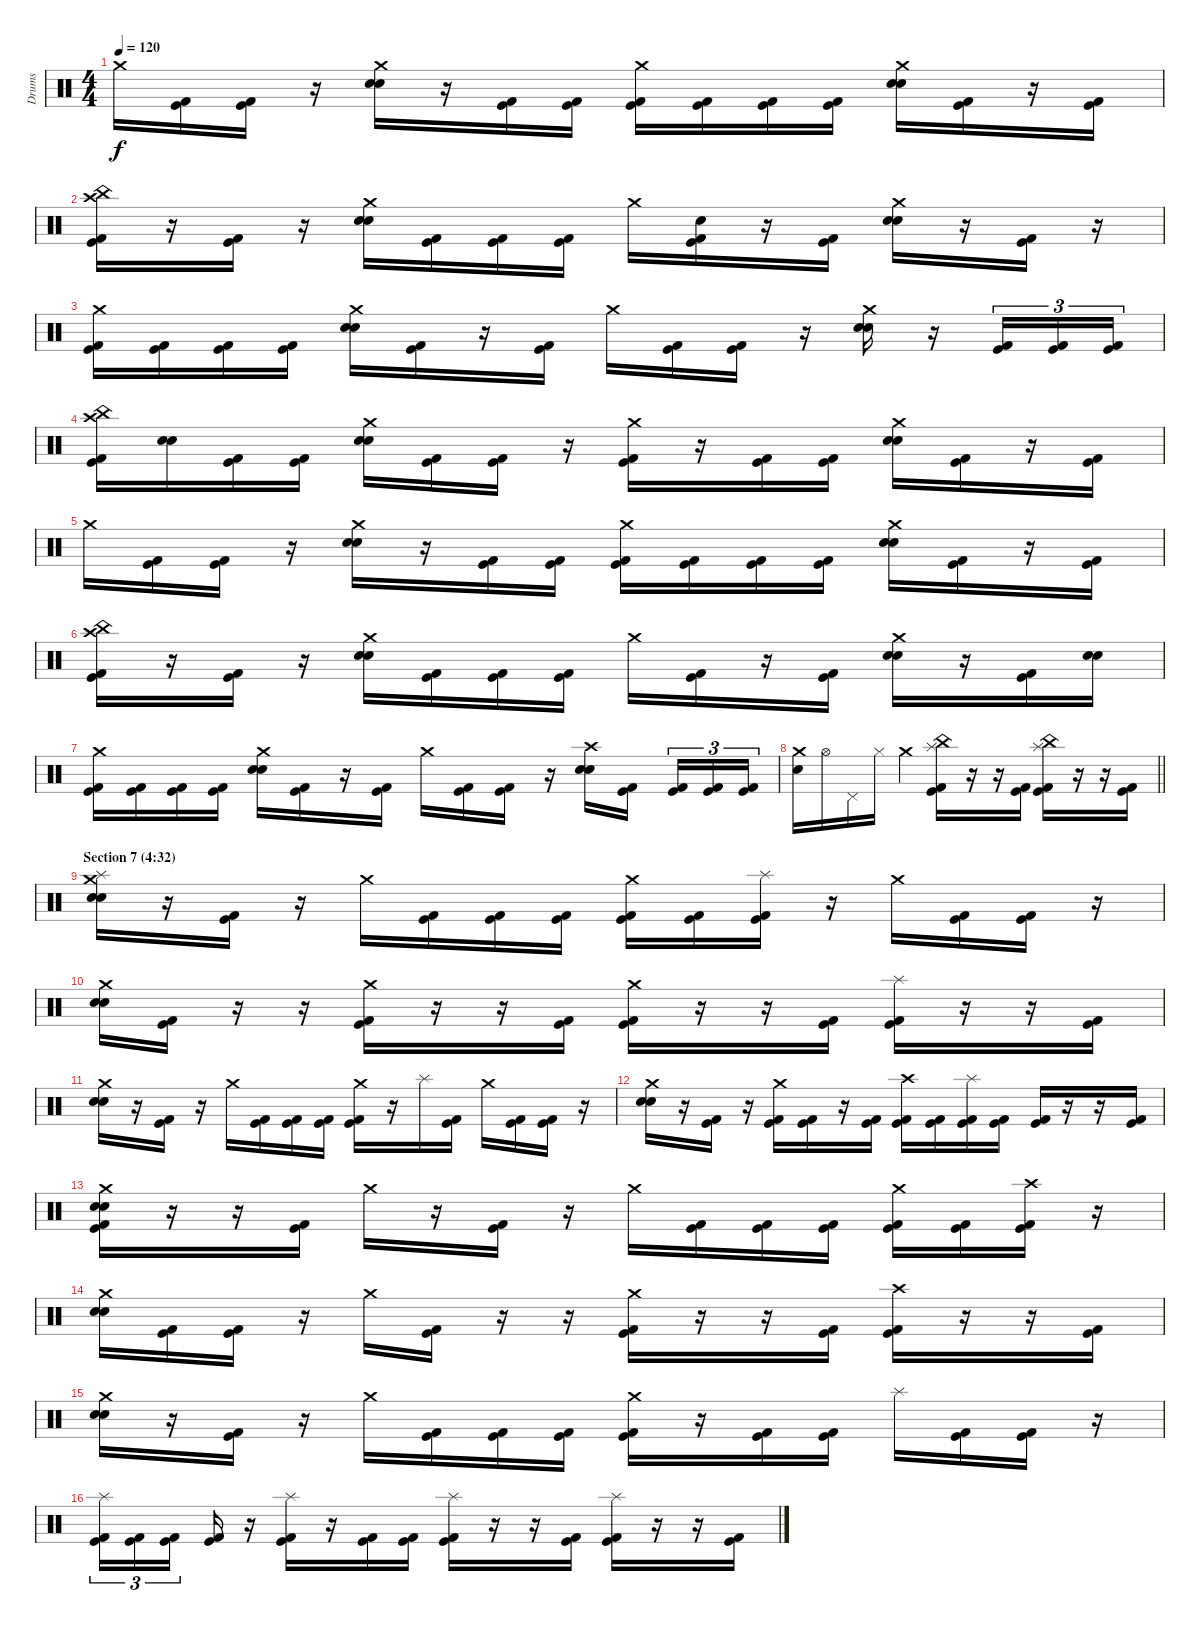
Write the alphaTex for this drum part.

\track ("Drums" "Drums") {instrument percussion}
\staff {score}
\articulation defaults
\ts (4 4)
\tempo 120
\clef neutral
\ks c "Crash medium (hit)".16{dy f}
("Kick (hit) 2" "Kick (hit)").16 ("Kick (hit) 2" "Kick (hit)").16 r.16 ("Crash medium (hit)" "Electric Snare (hit)" "Electric Snare (hit)").16 r.16 ("Kick (hit) 2" "Kick (hit)").16 ("Kick (hit) 2" "Kick (hit)").16 ("Crash medium (hit)" "Kick (hit) 2" "Kick (hit)").16 ("Kick (hit) 2" "Kick (hit)").16 ("Kick (hit) 2" "Kick (hit)").16 ("Kick (hit) 2" "Kick (hit)").16 ("Crash medium (hit)" "Electric Snare (hit)" "Electric Snare (hit)").16 ("Kick (hit) 2" "Kick (hit)").16 r.16 ("Kick (hit) 2" "Kick (hit)").16 |
("Crash high (hit)" "China (hit)" "Kick (hit) 2" "Kick (hit)").16 r.16 ("Kick (hit) 2" "Kick (hit)").16 r.16 ("Crash medium (hit)" "Electric Snare (hit)" "Electric Snare (hit)").16 ("Kick (hit) 2" "Kick (hit)").16 ("Kick (hit) 2" "Kick (hit)").16 ("Kick (hit) 2" "Kick (hit)").16 "Crash medium (hit)".16 ("Electric Snare (hit)" "Kick (hit) 2" "Kick (hit)").16 r.16 ("Kick (hit) 2" "Kick (hit)").16 ("Crash medium (hit)" "Electric Snare (hit)" "Electric Snare (hit)").16 r.16 ("Kick (hit) 2" "Kick (hit)").16 r.16 |
("Crash medium (hit)" "Kick (hit) 2" "Kick (hit)").16 ("Kick (hit) 2" "Kick (hit)").16 ("Kick (hit) 2" "Kick (hit)").16 ("Kick (hit) 2" "Kick (hit)").16 ("Crash medium (hit)" "Electric Snare (hit)" "Electric Snare (hit)").16 ("Kick (hit) 2" "Kick (hit)").16 r.16 ("Kick (hit) 2" "Kick (hit)").16 "Crash medium (hit)".16 ("Kick (hit) 2" "Kick (hit)").16 ("Kick (hit) 2" "Kick (hit)").16 r.16 ("Crash medium (hit)" "Electric Snare (hit)" "Electric Snare (hit)").16 r.16 ("Kick (hit) 2" "Kick (hit)").16{tu (3 2)} ("Kick (hit) 2" "Kick (hit)").16{tu (3 2)} ("Kick (hit) 2" "Kick (hit)").16{tu (3 2)} |
("Crash high (hit)" "China (hit)" "Kick (hit) 2" "Kick (hit)").16 ("Electric Snare (hit)" "Electric Snare (hit)").16 ("Kick (hit) 2" "Kick (hit)").16 ("Kick (hit) 2" "Kick (hit)").16 ("Crash medium (hit)" "Electric Snare (hit)" "Electric Snare (hit)").16 ("Kick (hit) 2" "Kick (hit)").16 ("Kick (hit) 2" "Kick (hit)").16 r.16 ("Crash medium (hit)" "Kick (hit) 2" "Kick (hit)").16 r.16 ("Kick (hit) 2" "Kick (hit)").16 ("Kick (hit) 2" "Kick (hit)").16 ("Crash medium (hit)" "Electric Snare (hit)" "Electric Snare (hit)").16 ("Kick (hit) 2" "Kick (hit)").16 r.16 ("Kick (hit) 2" "Kick (hit)").16 |
"Crash medium (hit)".16 ("Kick (hit) 2" "Kick (hit)").16 ("Kick (hit) 2" "Kick (hit)").16 r.16 ("Crash medium (hit)" "Electric Snare (hit)" "Electric Snare (hit)").16 r.16 ("Kick (hit) 2" "Kick (hit)").16 ("Kick (hit) 2" "Kick (hit)").16 ("Crash medium (hit)" "Kick (hit) 2" "Kick (hit)").16 ("Kick (hit) 2" "Kick (hit)").16 ("Kick (hit) 2" "Kick (hit)").16 ("Kick (hit) 2" "Kick (hit)").16 ("Crash medium (hit)" "Electric Snare (hit)" "Electric Snare (hit)").16 ("Kick (hit) 2" "Kick (hit)").16 r.16 ("Kick (hit) 2" "Kick (hit)").16 |
("Crash high (hit)" "China (hit)" "Kick (hit) 2" "Kick (hit)").16 r.16 ("Kick (hit) 2" "Kick (hit)").16 r.16 ("Crash medium (hit)" "Electric Snare (hit)" "Electric Snare (hit)").16 ("Kick (hit) 2" "Kick (hit)").16 ("Kick (hit) 2" "Kick (hit)").16 ("Kick (hit) 2" "Kick (hit)").16 "Crash medium (hit)".16 ("Kick (hit) 2" "Kick (hit)").16 r.16 ("Kick (hit) 2" "Kick (hit)").16 ("Crash medium (hit)" "Electric Snare (hit)" "Electric Snare (hit)").16 r.16 ("Kick (hit) 2" "Kick (hit)").16 ("Electric Snare (hit)" "Electric Snare (hit)").16 |
("Crash medium (hit)" "Kick (hit) 2" "Kick (hit)").16 ("Kick (hit) 2" "Kick (hit)").16 ("Kick (hit) 2" "Kick (hit)").16 ("Kick (hit) 2" "Kick (hit)").16 ("Crash medium (hit)" "Electric Snare (hit)" "Electric Snare (hit)").16 ("Kick (hit) 2" "Kick (hit)").16 r.16 ("Kick (hit) 2" "Kick (hit)").16 "Crash medium (hit)".16 ("Kick (hit) 2" "Kick (hit)").16 ("Kick (hit) 2" "Kick (hit)").16 r.16 ("Crash high (hit)" "Electric Snare (hit)" "Electric Snare (hit)").16 ("Kick (hit) 2" "Kick (hit)").16{beam splitsecondary} ("Kick (hit) 2" "Kick (hit)").16{tu (3 2)} ("Kick (hit) 2" "Kick (hit)").16{tu (3 2)} ("Kick (hit) 2" "Kick (hit)").16{tu (3 2)} |
\barLineRight lightlight
("Crash medium (hit)" "Electric Snare (hit)").16 "Hi-Hat (open)".16 "Pedal Hi-Hat (hit)".16 "Hi-Hat (closed)".16 "Crash medium (hit)".4 ("Splash (hit)" "China (hit)" "Kick (hit) 2" "Kick (hit)").16 r.16 r.16 ("Kick (hit) 2" "Kick (hit)").16 ("Splash (hit)" "China (hit)" "Kick (hit) 2" "Kick (hit)").16 r.16 r.16 ("Kick (hit) 2" "Kick (hit)").16 |
\section ("" "Section 7 (4:32)")
("Splash (hit)" "Crash medium (hit)" "Electric Snare (hit)" "Electric Snare (hit)").16 r.16 ("Kick (hit) 2" "Kick (hit)").16 r.16 "Crash medium (hit)".16 ("Kick (hit) 2" "Kick (hit)").16 ("Kick (hit) 2" "Kick (hit)").16 ("Kick (hit) 2" "Kick (hit)").16 ("Crash medium (hit)" "Kick (hit) 2" "Kick (hit)").16 ("Kick (hit) 2" "Kick (hit)").16 ("Splash (hit)" "Kick (hit) 2" "Kick (hit)").16 r.16 "Crash medium (hit)".16 ("Kick (hit) 2" "Kick (hit)").16 ("Kick (hit) 2" "Kick (hit)").16 r.16 |
("Crash medium (hit)" "Electric Snare (hit)" "Electric Snare (hit)").16 ("Kick (hit) 2" "Kick (hit)").16 r.16 r.16 ("Crash medium (hit)" "Kick (hit) 2" "Kick (hit)").16 r.16 r.16 ("Kick (hit) 2" "Kick (hit)").16 ("Crash medium (hit)" "Kick (hit) 2" "Kick (hit)").16 r.16 r.16 ("Kick (hit) 2" "Kick (hit)").16 ("Splash (hit)" "Kick (hit) 2" "Kick (hit)").16 r.16 r.16 ("Kick (hit) 2" "Kick (hit)").16 |
("Crash medium (hit)" "Electric Snare (hit)" "Electric Snare (hit)").16 r.16 ("Kick (hit) 2" "Kick (hit)").16 r.16 "Crash medium (hit)".16 ("Kick (hit) 2" "Kick (hit)").16 ("Kick (hit) 2" "Kick (hit)").16 ("Kick (hit) 2" "Kick (hit)").16 ("Crash medium (hit)" "Kick (hit) 2" "Kick (hit)").16 r.16 "Splash (hit)".16 ("Kick (hit) 2" "Kick (hit)").16 "Crash medium (hit)".16 ("Kick (hit) 2" "Kick (hit)").16 ("Kick (hit) 2" "Kick (hit)").16 r.16 |
("Crash medium (hit)" "Electric Snare (hit)" "Electric Snare (hit)").16 r.16 ("Kick (hit) 2" "Kick (hit)").16 r.16 ("Crash medium (hit)" "Kick (hit) 2" "Kick (hit)").16 ("Kick (hit) 2" "Kick (hit)").16 r.16 ("Kick (hit) 2" "Kick (hit)").16 ("Crash high (hit)" "Kick (hit) 2" "Kick (hit)").16 ("Kick (hit) 2" "Kick (hit)").16 ("Splash (hit)" "Kick (hit) 2" "Kick (hit)").16 ("Kick (hit) 2" "Kick (hit)").16 ("Kick (hit) 2" "Kick (hit)").16 r.16 r.16 ("Kick (hit) 2" "Kick (hit)").16 |
("Crash medium (hit)" "Electric Snare (hit)" "Electric Snare (hit)" "Kick (hit) 2" "Kick (hit)").16 r.16 r.16 ("Kick (hit) 2" "Kick (hit)").16 "Crash medium (hit)".16 r.16 ("Kick (hit) 2" "Kick (hit)").16 r.16 "Crash medium (hit)".16 ("Kick (hit) 2" "Kick (hit)").16 ("Kick (hit) 2" "Kick (hit)").16 ("Kick (hit) 2" "Kick (hit)").16 ("Crash medium (hit)" "Kick (hit) 2" "Kick (hit)").16 ("Kick (hit) 2" "Kick (hit)").16 ("Crash high (hit)" "Kick (hit) 2" "Kick (hit)").16 r.16 |
("Crash medium (hit)" "Electric Snare (hit)" "Electric Snare (hit)").16 ("Kick (hit) 2" "Kick (hit)").16 ("Kick (hit) 2" "Kick (hit)").16 r.16 "Crash medium (hit)".16 ("Kick (hit) 2" "Kick (hit)").16 r.16 r.16 ("Crash medium (hit)" "Kick (hit) 2" "Kick (hit)").16 r.16 r.16 ("Kick (hit) 2" "Kick (hit)").16 ("Crash high (hit)" "Kick (hit) 2" "Kick (hit)").16 r.16 r.16 ("Kick (hit) 2" "Kick (hit)").16 |
("Crash medium (hit)" "Electric Snare (hit)" "Electric Snare (hit)").16 r.16 ("Kick (hit) 2" "Kick (hit)").16 r.16 "Crash medium (hit)".16 ("Kick (hit) 2" "Kick (hit)").16 ("Kick (hit) 2" "Kick (hit)").16 ("Kick (hit) 2" "Kick (hit)").16 ("Crash medium (hit)" "Kick (hit) 2" "Kick (hit)").16 r.16 ("Kick (hit) 2" "Kick (hit)").16 ("Kick (hit) 2" "Kick (hit)").16 "Splash (hit)".16 ("Kick (hit) 2" "Kick (hit)").16 ("Kick (hit) 2" "Kick (hit)").16 r.16 |
("Splash (hit)" "Kick (hit) 2" "Kick (hit)").16{tu (3 2)} ("Kick (hit) 2" "Kick (hit)").16{tu (3 2)} ("Kick (hit) 2" "Kick (hit)").16{tu (3 2) beam splitsecondary} ("Kick (hit) 2" "Kick (hit)").16 r.16 ("Splash (hit)" "Kick (hit) 2" "Kick (hit)").16 r.16 ("Kick (hit) 2" "Kick (hit)").16 ("Kick (hit) 2" "Kick (hit)").16 ("Splash (hit)" "Kick (hit) 2" "Kick (hit)").16 r.16 r.16 ("Kick (hit) 2" "Kick (hit)").16 ("Splash (hit)" "Kick (hit) 2" "Kick (hit)").16 r.16 r.16 ("Kick (hit) 2" "Kick (hit)").16
